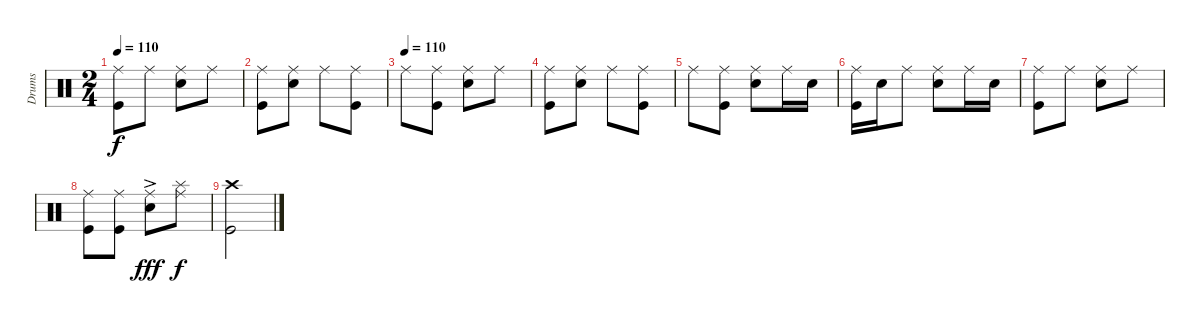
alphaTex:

\track ("Drums" "Drums") {instrument percussion}
\staff {score}
\articulation defaults
\ts (2 4)
\tempo 110
\clef neutral
\ks c
("Ride (middle)" "Kick (hit)").8{dy f} "Ride (middle)".8 ("Ride (middle)" "Snare (hit) 2").8 "Ride (middle)".8 |
("Ride (middle)" "Kick (hit)").8 ("Ride (middle)" "Snare (hit) 2").8 "Ride (middle)".8 ("Ride (middle)" "Kick (hit)").8 |
\tempo (110)
"Ride (middle)".8 ("Ride (middle)" "Kick (hit)").8 ("Ride (middle)" "Snare (hit) 2").8 "Ride (middle)".8 |
("Ride (middle)" "Kick (hit)").8 ("Ride (middle)" "Snare (hit) 2").8 "Ride (middle)".8 ("Ride (middle)" "Kick (hit)").8 |
"Ride (middle)".8 ("Ride (middle)" "Kick (hit)").8 ("Ride (middle)" "Snare (hit) 2").8 "Ride (middle)".16 "Snare (hit) 2".16 |
("Ride (middle)" "Kick (hit)").16 "Snare (hit) 2".16 "Ride (middle)".8 ("Ride (middle)" "Snare (hit) 2").8 "Ride (middle)".16 "Snare (hit) 2".16 |
("Ride (middle)" "Kick (hit)").8 "Ride (middle)".8 ("Ride (middle)" "Snare (hit) 2").8 "Ride (middle)".8 |
("Ride (middle)" "Kick (hit)").8 ("Ride (middle)" "Kick (hit)").8 ("Ride (middle)" "Snare (hit) 2"{ac}).8{dy fff} ("Ride (middle)" "Splash (hit)").8{dy f} |
("Crash high (hit)" "Kick (hit)").2
